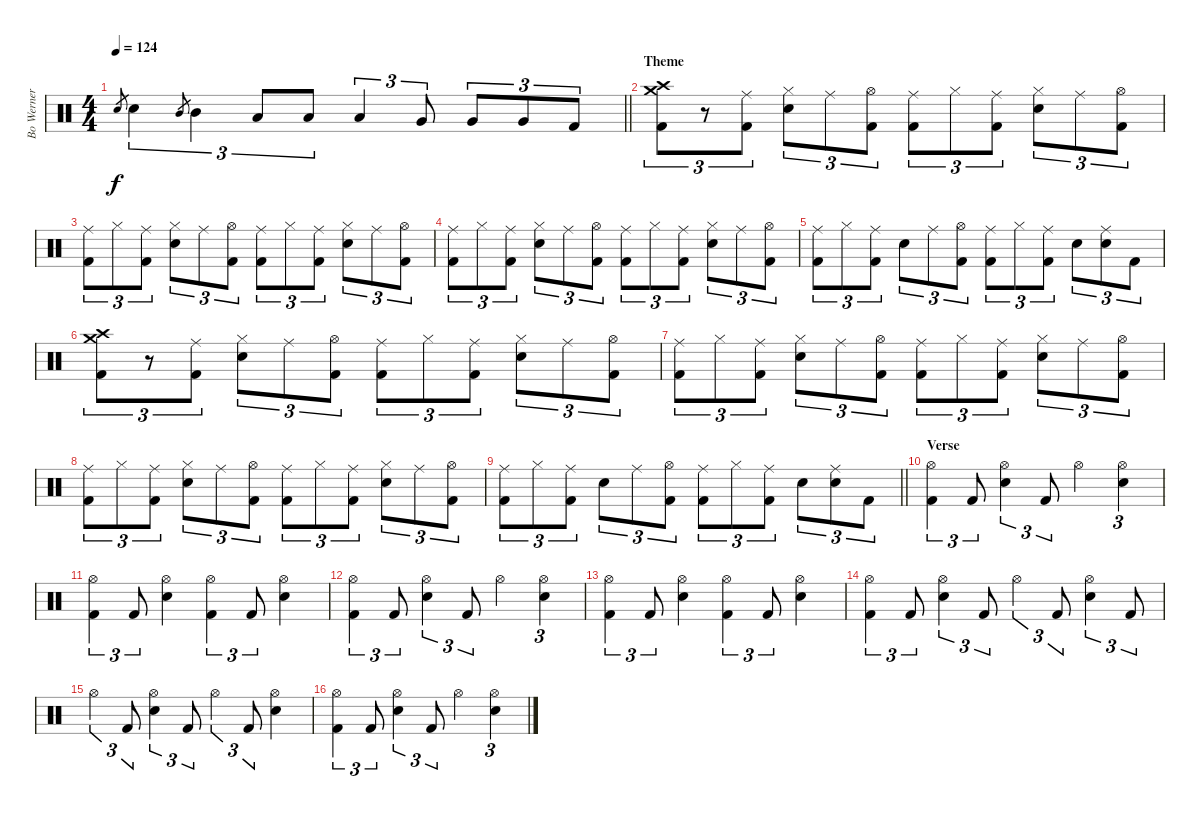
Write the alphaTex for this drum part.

\track ("Bo Werner " "Bo Werner ") {instrument percussion}
\staff {score}
\articulation defaults
\ts (4 4)
\tempo 124
\clef neutral
\barLineRight lightlight
\ks c "Snare (hit) 2".8{gr dy f} "Snare (hit) 2".4{tu (3 2)} "Mid Tom (hit)".8{gr} "Mid Tom (hit)".4{tu (3 2)} "Low Tom (hit)".8{tu (3 2)} "Low Tom (hit)".8{tu (3 2)} "Low Tom (hit)".4{tu (3 2)} "Very Low Tom (hit)".8{tu (3 2)} "Very Low Tom (hit)".8{tu (3 2)} "Very Low Tom (hit)".8{tu (3 2)} "Kick (hit) 2".8{tu (3 2)}
|
\section ("" "Theme")
("Crash medium (hit)" "Crash high (hit)" "Kick (hit) 2").8{tu (3 2)} r.8{tu (3 2)} ("Ride (middle)" "Kick (hit) 2").8{tu (3 2)} ("Hi-Hat (closed)" "Electric Snare (hit)").8{tu (3 2)} "Ride (middle)".8{tu (3 2)} ("Hi-Hat (open)" "Kick (hit) 2").8{tu (3 2)} ("Ride (middle)" "Kick (hit) 2").8{tu (3 2)} "Hi-Hat (closed)".8{tu (3 2)} ("Ride (middle)" "Kick (hit) 2").8{tu (3 2)} ("Hi-Hat (closed)" "Electric Snare (hit)").8{tu (3 2)} "Ride (middle)".8{tu (3 2)} ("Hi-Hat (open)" "Kick (hit) 2").8{tu (3 2)} |
("Ride (middle)" "Kick (hit) 2").8{tu (3 2)} "Hi-Hat (closed)".8{tu (3 2)} ("Ride (middle)" "Kick (hit) 2").8{tu (3 2)} ("Hi-Hat (closed)" "Electric Snare (hit)").8{tu (3 2)} "Ride (middle)".8{tu (3 2)} ("Hi-Hat (open)" "Kick (hit) 2").8{tu (3 2)} ("Ride (middle)" "Kick (hit) 2").8{tu (3 2)} "Hi-Hat (closed)".8{tu (3 2)} ("Ride (middle)" "Kick (hit) 2").8{tu (3 2)} ("Hi-Hat (closed)" "Electric Snare (hit)").8{tu (3 2)} "Ride (middle)".8{tu (3 2)} ("Hi-Hat (open)" "Kick (hit) 2").8{tu (3 2)} |
("Ride (middle)" "Kick (hit) 2").8{tu (3 2)} "Hi-Hat (closed)".8{tu (3 2)} ("Ride (middle)" "Kick (hit) 2").8{tu (3 2)} ("Hi-Hat (closed)" "Electric Snare (hit)").8{tu (3 2)} "Ride (middle)".8{tu (3 2)} ("Hi-Hat (open)" "Kick (hit) 2").8{tu (3 2)} ("Ride (middle)" "Kick (hit) 2").8{tu (3 2)} "Hi-Hat (closed)".8{tu (3 2)} ("Ride (middle)" "Kick (hit) 2").8{tu (3 2)} ("Hi-Hat (closed)" "Electric Snare (hit)").8{tu (3 2)} "Ride (middle)".8{tu (3 2)} ("Hi-Hat (open)" "Kick (hit) 2").8{tu (3 2)} |
("Ride (middle)" "Kick (hit) 2").8{tu (3 2)} "Hi-Hat (closed)".8{tu (3 2)} ("Ride (middle)" "Kick (hit) 2").8{tu (3 2)} "Electric Snare (hit)".8{tu (3 2)} "Ride (middle)".8{tu (3 2)} ("Hi-Hat (open)" "Kick (hit) 2").8{tu (3 2)} ("Ride (middle)" "Kick (hit) 2").8{tu (3 2)} "Hi-Hat (closed)".8{tu (3 2)} ("Ride (middle)" "Kick (hit) 2").8{tu (3 2)} "Electric Snare (hit)".8{tu (3 2)} ("Ride (middle)" "Electric Snare (hit)").8{tu (3 2)} "Kick (hit) 2".8{tu (3 2)} |
("Crash medium (hit)" "Crash high (hit)" "Kick (hit) 2").8{tu (3 2)} r.8{tu (3 2)} ("Ride (middle)" "Kick (hit) 2").8{tu (3 2)} ("Hi-Hat (closed)" "Electric Snare (hit)").8{tu (3 2)} "Ride (middle)".8{tu (3 2)} ("Hi-Hat (open)" "Kick (hit) 2").8{tu (3 2)} ("Ride (middle)" "Kick (hit) 2").8{tu (3 2)} "Hi-Hat (closed)".8{tu (3 2)} ("Ride (middle)" "Kick (hit) 2").8{tu (3 2)} ("Hi-Hat (closed)" "Electric Snare (hit)").8{tu (3 2)} "Ride (middle)".8{tu (3 2)} ("Hi-Hat (open)" "Kick (hit) 2").8{tu (3 2)} |
("Ride (middle)" "Kick (hit) 2").8{tu (3 2)} "Hi-Hat (closed)".8{tu (3 2)} ("Ride (middle)" "Kick (hit) 2").8{tu (3 2)} ("Hi-Hat (closed)" "Electric Snare (hit)").8{tu (3 2)} "Ride (middle)".8{tu (3 2)} ("Hi-Hat (open)" "Kick (hit) 2").8{tu (3 2)} ("Ride (middle)" "Kick (hit) 2").8{tu (3 2)} "Hi-Hat (closed)".8{tu (3 2)} ("Ride (middle)" "Kick (hit) 2").8{tu (3 2)} ("Hi-Hat (closed)" "Electric Snare (hit)").8{tu (3 2)} "Ride (middle)".8{tu (3 2)} ("Hi-Hat (open)" "Kick (hit) 2").8{tu (3 2)} |
("Ride (middle)" "Kick (hit) 2").8{tu (3 2)} "Hi-Hat (closed)".8{tu (3 2)} ("Ride (middle)" "Kick (hit) 2").8{tu (3 2)} ("Hi-Hat (closed)" "Electric Snare (hit)").8{tu (3 2)} "Ride (middle)".8{tu (3 2)} ("Hi-Hat (open)" "Kick (hit) 2").8{tu (3 2)} ("Ride (middle)" "Kick (hit) 2").8{tu (3 2)} "Hi-Hat (closed)".8{tu (3 2)} ("Ride (middle)" "Kick (hit) 2").8{tu (3 2)} ("Hi-Hat (closed)" "Electric Snare (hit)").8{tu (3 2)} "Ride (middle)".8{tu (3 2)} ("Hi-Hat (open)" "Kick (hit) 2").8{tu (3 2)} |
\barLineRight lightlight
("Ride (middle)" "Kick (hit) 2").8{tu (3 2)} "Hi-Hat (closed)".8{tu (3 2)} ("Ride (middle)" "Kick (hit) 2").8{tu (3 2)} "Electric Snare (hit)".8{tu (3 2)} "Ride (middle)".8{tu (3 2)} ("Hi-Hat (open)" "Kick (hit) 2").8{tu (3 2)} ("Ride (middle)" "Kick (hit) 2").8{tu (3 2)} "Hi-Hat (closed)".8{tu (3 2)} ("Ride (middle)" "Kick (hit) 2").8{tu (3 2)} "Electric Snare (hit)".8{tu (3 2)} ("Ride (middle)" "Electric Snare (hit)").8{tu (3 2)} "Kick (hit) 2".8{tu (3 2)} |
\section ("" "Verse")
("Hi-Hat (open)" "Kick (hit) 2").4{tu (3 2)} "Kick (hit) 2".8{tu (3 2)} ("Hi-Hat (open)" "Snare (hit) 2").4{tu (3 2)} "Kick (hit) 2".8{tu (3 2)} "Hi-Hat (open)".4 ("Hi-Hat (open)" "Snare (hit) 2").4{tu (3 2)} |
("Hi-Hat (open)" "Kick (hit) 2").4{tu (3 2)} "Kick (hit) 2".8{tu (3 2)} ("Hi-Hat (open)" "Snare (hit) 2").4 ("Hi-Hat (open)" "Kick (hit) 2").4{tu (3 2)} "Kick (hit) 2".8{tu (3 2)} ("Hi-Hat (open)" "Snare (hit) 2").4 |
("Hi-Hat (open)" "Kick (hit) 2").4{tu (3 2)} "Kick (hit) 2".8{tu (3 2)} ("Hi-Hat (open)" "Snare (hit) 2").4{tu (3 2)} "Kick (hit) 2".8{tu (3 2)} "Hi-Hat (open)".4 ("Hi-Hat (open)" "Snare (hit) 2").4{tu (3 2)} |
("Hi-Hat (open)" "Kick (hit) 2").4{tu (3 2)} "Kick (hit) 2".8{tu (3 2)} ("Hi-Hat (open)" "Snare (hit) 2").4 ("Hi-Hat (open)" "Kick (hit) 2").4{tu (3 2)} "Kick (hit) 2".8{tu (3 2)} ("Hi-Hat (open)" "Snare (hit) 2").4 |
("Hi-Hat (open)" "Kick (hit) 2").4{tu (3 2)} "Kick (hit) 2".8{tu (3 2)} ("Hi-Hat (open)" "Snare (hit) 2").4{tu (3 2)} "Kick (hit) 2".8{tu (3 2)} "Hi-Hat (open)".4{tu (3 2)} "Kick (hit) 2".8{tu (3 2)} ("Hi-Hat (open)" "Snare (hit) 2").4{tu (3 2)} "Kick (hit) 2".8{tu (3 2)} |
"Hi-Hat (open)".4{tu (3 2)} "Kick (hit) 2".8{tu (3 2)} ("Hi-Hat (open)" "Snare (hit) 2").4{tu (3 2)} "Kick (hit) 2".8{tu (3 2)} "Hi-Hat (open)".4{tu (3 2)} "Kick (hit) 2".8{tu (3 2)} ("Hi-Hat (open)" "Snare (hit) 2").4 |
("Hi-Hat (open)" "Kick (hit) 2").4{tu (3 2)} "Kick (hit) 2".8{tu (3 2)} ("Hi-Hat (open)" "Snare (hit) 2").4{tu (3 2)} "Kick (hit) 2".8{tu (3 2)} "Hi-Hat (open)".4 ("Hi-Hat (open)" "Snare (hit) 2").4{tu (3 2)}
